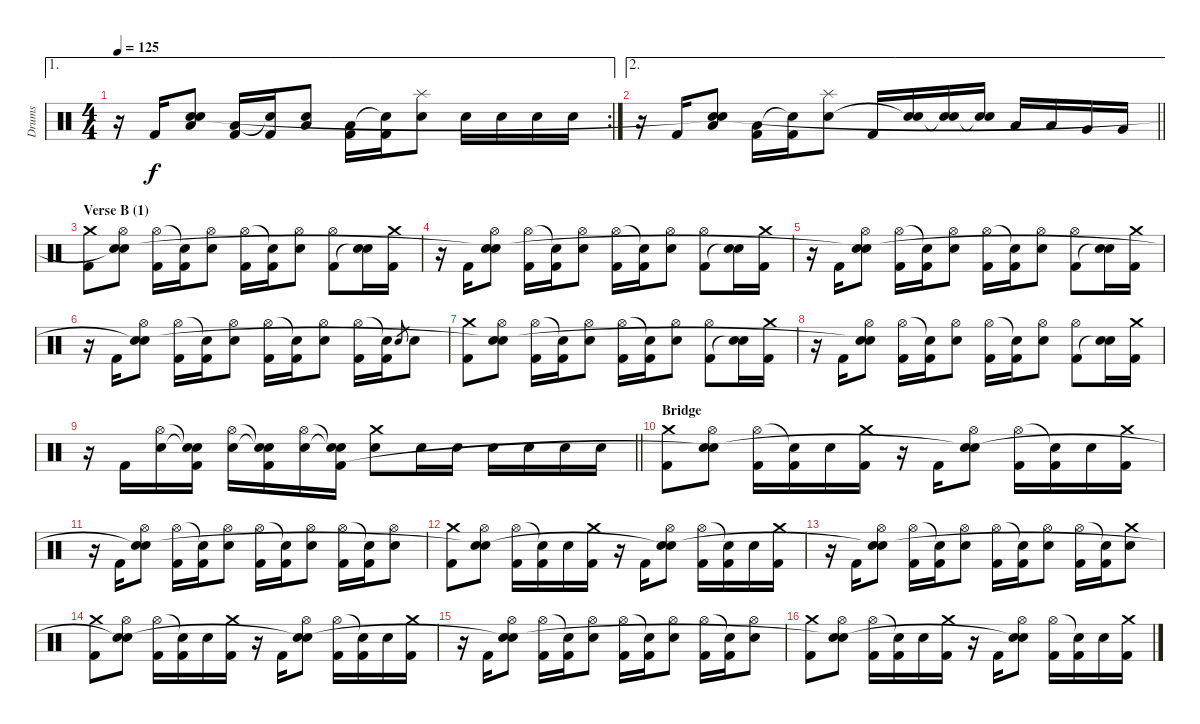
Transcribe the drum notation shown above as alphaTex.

\track ("Drums" "Drums") {instrument percussion}
\staff {score}
\articulation defaults
\ae 1
\rc 2
\ts (4 4)
\tempo 125
\clef neutral
\ks c
r.16{dy f} "Kick (hit) 2".16 ("Electric Snare (hit)" "Low Floor Tom (hit)" "Snare (hit)"{t}).8 ("Low Floor Tom (hit)" "Kick (hit) 2").16 ("Snare (hit)"{t} "Kick (hit) 2").16 ("Electric Snare (hit)" "Low Floor Tom (hit)").8 ("Low Floor Tom (hit)" "Kick (hit) 2").16 ("Snare (hit)"{t} "Kick (hit) 2").16 ("Splash (hit)" "Electric Snare (hit)").8 "Electric Snare (hit)".16 "Electric Snare (hit)".16 "Electric Snare (hit)".16 "Electric Snare (hit)".16 |
\ae 2
\barLineRight lightlight
r.16 "Kick (hit) 2".16 ("Electric Snare (hit)" "Low Floor Tom (hit)" "Snare (hit)"{t}).8 ("Low Floor Tom (hit)" "Kick (hit) 2").16 ("Snare (hit)"{t} "Kick (hit) 2").16 ("Splash (hit)" "Electric Snare (hit)").8 "Kick (hit) 2".16 ("Electric Snare (hit)" "Snare (hit)"{t}).16 ("Electric Snare (hit)" "Snare (hit)"{t}).16 ("Electric Snare (hit)" "Snare (hit)"{t}).16 "Low Tom (hit)".16 "Low Tom (hit)".16 "Very Low Tom (hit)".16 "Very Low Tom (hit)".16 |
\section ("" "Verse B (1)")
("Crash medium (hit)" "Kick (hit) 2").8 ("Hi-Hat (open)" "Electric Snare (hit)" "Snare (hit)"{t}).8 ("Hi-Hat (open)" "Kick (hit) 2").16 ("Snare (hit)"{t} "Kick (hit) 2").16 ("Hi-Hat (open)" "Electric Snare (hit)").8 ("Hi-Hat (open)" "Kick (hit) 2").16 ("Snare (hit)"{t} "Kick (hit) 2").16 ("Hi-Hat (open)" "Electric Snare (hit)").8 ("Hi-Hat (open)" "Kick (hit) 2").8 ("Electric Snare (hit)" "Snare (hit)"{t}).16 ("Crash medium (hit)" "Kick (hit) 2").16 |
r.16 "Kick (hit) 2".16 ("Hi-Hat (open)" "Electric Snare (hit)" "Snare (hit)"{t}).8 ("Hi-Hat (open)" "Kick (hit) 2").16 ("Snare (hit)"{t} "Kick (hit) 2").16 ("Hi-Hat (open)" "Electric Snare (hit)").8 ("Hi-Hat (open)" "Kick (hit) 2").16 ("Snare (hit)"{t} "Kick (hit) 2").16 ("Hi-Hat (open)" "Electric Snare (hit)").8 ("Hi-Hat (open)" "Kick (hit) 2").8 ("Electric Snare (hit)" "Snare (hit)"{t}).16 ("Crash medium (hit)" "Kick (hit) 2").16 |
r.16 "Kick (hit) 2".16 ("Hi-Hat (open)" "Electric Snare (hit)" "Snare (hit)"{t}).8 ("Hi-Hat (open)" "Kick (hit) 2").16 ("Snare (hit)"{t} "Kick (hit) 2").16 ("Hi-Hat (open)" "Electric Snare (hit)").8 ("Hi-Hat (open)" "Kick (hit) 2").16 ("Snare (hit)"{t} "Kick (hit) 2").16 ("Hi-Hat (open)" "Electric Snare (hit)").8 ("Hi-Hat (open)" "Kick (hit) 2").8 ("Electric Snare (hit)" "Snare (hit)"{t}).16 ("Crash medium (hit)" "Kick (hit) 2").16 |
r.16 "Kick (hit) 2".16 ("Hi-Hat (open)" "Electric Snare (hit)" "Snare (hit)"{t}).8 ("Hi-Hat (open)" "Kick (hit) 2").16 ("Snare (hit)"{t} "Kick (hit) 2").16 ("Hi-Hat (open)" "Electric Snare (hit)").8 ("Hi-Hat (open)" "Kick (hit) 2").16 ("Snare (hit)"{t} "Kick (hit) 2").16 ("Hi-Hat (open)" "Electric Snare (hit)").8 ("Hi-Hat (open)" "Kick (hit) 2").16 ("Snare (hit)"{t} "Kick (hit) 2").16 "Electric Snare (hit)".8{gr} "Electric Snare (hit)".8 |
("Crash medium (hit)" "Kick (hit) 2").8 ("Hi-Hat (open)" "Electric Snare (hit)" "Snare (hit)"{t}).8 ("Hi-Hat (open)" "Kick (hit) 2").16 ("Snare (hit)"{t} "Kick (hit) 2").16 ("Hi-Hat (open)" "Electric Snare (hit)").8 ("Hi-Hat (open)" "Kick (hit) 2").16 ("Snare (hit)"{t} "Kick (hit) 2").16 ("Hi-Hat (open)" "Electric Snare (hit)").8 ("Hi-Hat (open)" "Kick (hit) 2").8 ("Electric Snare (hit)" "Snare (hit)"{t}).16 ("Crash medium (hit)" "Kick (hit) 2").16 |
r.16 "Kick (hit) 2".16 ("Hi-Hat (open)" "Electric Snare (hit)" "Snare (hit)"{t}).8 ("Hi-Hat (open)" "Kick (hit) 2").16 ("Snare (hit)"{t} "Kick (hit) 2").16 ("Hi-Hat (open)" "Electric Snare (hit)").8 ("Hi-Hat (open)" "Kick (hit) 2").16 ("Snare (hit)"{t} "Kick (hit) 2").16 ("Hi-Hat (open)" "Electric Snare (hit)").8 ("Hi-Hat (open)" "Kick (hit) 2").8 ("Electric Snare (hit)" "Snare (hit)"{t}).16 ("Crash medium (hit)" "Kick (hit) 2").16 |
\barLineRight lightlight
r.16 "Kick (hit) 2".16 ("Hi-Hat (open)" "Electric Snare (hit)").16 ("Snare (hit)"{t} "Snare (hit)"{t} "Kick (hit) 2").16 ("Hi-Hat (open)" "Electric Snare (hit)").16 ("Snare (hit)"{t} "Snare (hit)"{t} "Kick (hit) 2").16 ("Hi-Hat (open)" "Electric Snare (hit)").16 ("Snare (hit)"{t} "Snare (hit)"{t} "Kick (hit) 2").16 ("Crash medium (hit)" "Electric Snare (hit)").8 "Electric Snare (hit)".16 "Electric Snare (hit)".16 "Electric Snare (hit)".16 "Electric Snare (hit)".16 "Electric Snare (hit)".16 "Electric Snare (hit)".16 |
\section ("" "Bridge")
("Crash medium (hit)" "Kick (hit) 2").8 ("Hi-Hat (open)" "Electric Snare (hit)" "Snare (hit)"{t}).8 ("Hi-Hat (open)" "Kick (hit) 2").16 ("Snare (hit)"{t} "Kick (hit) 2").16 "Electric Snare (hit)".16 ("Crash medium (hit)" "Kick (hit) 2").16 r.16 "Kick (hit) 2".16 ("Hi-Hat (open)" "Electric Snare (hit)" "Snare (hit)"{t}).8 ("Hi-Hat (open)" "Kick (hit) 2").16 ("Snare (hit)"{t} "Kick (hit) 2").16 "Electric Snare (hit)".16 ("Crash medium (hit)" "Kick (hit) 2").16 |
r.16 "Kick (hit) 2".16 ("Hi-Hat (open)" "Electric Snare (hit)" "Snare (hit)"{t}).8 ("Hi-Hat (open)" "Kick (hit) 2").16 ("Snare (hit)"{t} "Kick (hit) 2").16 ("Hi-Hat (open)" "Electric Snare (hit)").8 ("Hi-Hat (open)" "Kick (hit) 2").16 ("Snare (hit)"{t} "Kick (hit) 2").16 ("Hi-Hat (open)" "Electric Snare (hit)").8 ("Hi-Hat (open)" "Kick (hit) 2").16 ("Snare (hit)"{t} "Kick (hit) 2").16 ("Hi-Hat (open)" "Electric Snare (hit)").8 |
("Crash medium (hit)" "Kick (hit) 2").8 ("Hi-Hat (open)" "Electric Snare (hit)" "Snare (hit)"{t}).8 ("Hi-Hat (open)" "Kick (hit) 2").16 ("Snare (hit)"{t} "Kick (hit) 2").16 "Electric Snare (hit)".16 ("Crash medium (hit)" "Kick (hit) 2").16 r.16 "Kick (hit) 2".16 ("Hi-Hat (open)" "Electric Snare (hit)" "Snare (hit)"{t}).8 ("Hi-Hat (open)" "Kick (hit) 2").16 ("Snare (hit)"{t} "Kick (hit) 2").16 "Electric Snare (hit)".16 ("Crash medium (hit)" "Kick (hit) 2").16 |
r.16 "Kick (hit) 2".16 ("Hi-Hat (open)" "Electric Snare (hit)" "Snare (hit)"{t}).8 ("Hi-Hat (open)" "Kick (hit) 2").16 ("Snare (hit)"{t} "Kick (hit) 2").16 ("Hi-Hat (open)" "Electric Snare (hit)").8 ("Hi-Hat (open)" "Kick (hit) 2").16 ("Snare (hit)"{t} "Kick (hit) 2").16 ("Hi-Hat (open)" "Electric Snare (hit)").8 ("Hi-Hat (open)" "Kick (hit) 2").16 ("Snare (hit)"{t} "Kick (hit) 2").16 ("Crash medium (hit)" "Electric Snare (hit)").8 |
("Crash medium (hit)" "Kick (hit) 2").8 ("Hi-Hat (open)" "Electric Snare (hit)" "Snare (hit)"{t}).8 ("Hi-Hat (open)" "Kick (hit) 2").16 ("Snare (hit)"{t} "Kick (hit) 2").16 "Electric Snare (hit)".16 ("Crash medium (hit)" "Kick (hit) 2").16 r.16 "Kick (hit) 2".16 ("Hi-Hat (open)" "Electric Snare (hit)" "Snare (hit)"{t}).8 ("Hi-Hat (open)" "Kick (hit) 2").16 ("Snare (hit)"{t} "Kick (hit) 2").16 "Electric Snare (hit)".16 ("Crash medium (hit)" "Kick (hit) 2").16 |
r.16 "Kick (hit) 2".16 ("Hi-Hat (open)" "Electric Snare (hit)" "Snare (hit)"{t}).8 ("Hi-Hat (open)" "Kick (hit) 2").16 ("Snare (hit)"{t} "Kick (hit) 2").16 ("Hi-Hat (open)" "Electric Snare (hit)").8 ("Hi-Hat (open)" "Kick (hit) 2").16 ("Snare (hit)"{t} "Kick (hit) 2").16 ("Hi-Hat (open)" "Electric Snare (hit)").8 ("Hi-Hat (open)" "Kick (hit) 2").16 ("Snare (hit)"{t} "Kick (hit) 2").16 ("Hi-Hat (open)" "Electric Snare (hit)").8 |
("Crash medium (hit)" "Kick (hit) 2").8 ("Hi-Hat (open)" "Electric Snare (hit)" "Snare (hit)"{t}).8 ("Hi-Hat (open)" "Kick (hit) 2").16 ("Snare (hit)"{t} "Kick (hit) 2").16 "Electric Snare (hit)".16 ("Crash medium (hit)" "Kick (hit) 2").16 r.16 "Kick (hit) 2".16 ("Hi-Hat (open)" "Electric Snare (hit)" "Snare (hit)"{t}).8 ("Hi-Hat (open)" "Kick (hit) 2").16 ("Snare (hit)"{t} "Kick (hit) 2").16 "Electric Snare (hit)".16 ("Crash medium (hit)" "Kick (hit) 2").16
